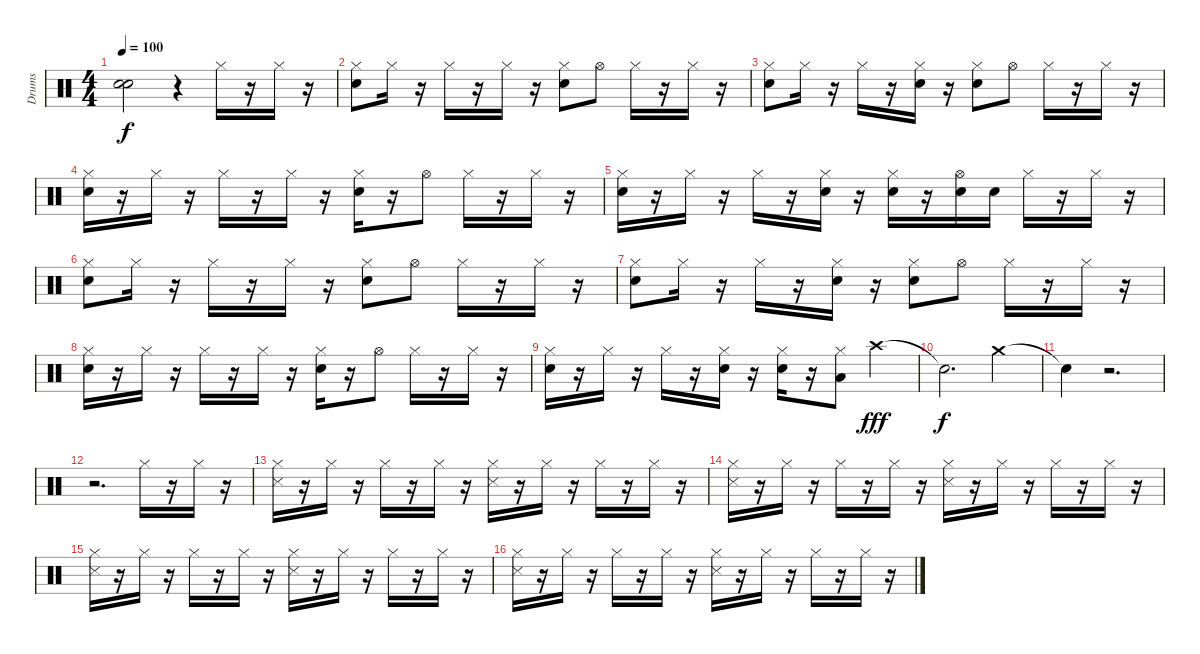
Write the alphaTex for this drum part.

\track ("Drums" "Drums") {instrument percussion}
\staff {score}
\articulation defaults
\ts (4 4)
\tempo 100
\clef neutral
\ks c
("Snare (hit)"{t} "Snare (hit)"{t}).2{dy f} r.4 "Hi-Hat (closed)".16 r.16 "Hi-Hat (closed)".16 r.16 |
("Snare (hit) 2" "Hi-Hat (closed)").8 "Hi-Hat (closed)".16 r.16 "Hi-Hat (closed)".16 r.16 "Hi-Hat (closed)".16 r.16 ("Snare (hit) 2" "Hi-Hat (closed)").8 "Hi-Hat (open)".8 "Hi-Hat (closed)".16 r.16 "Hi-Hat (closed)".16 r.16 |
("Hi-Hat (closed)" "Snare (hit) 2").8 "Hi-Hat (closed)".16 r.16 "Hi-Hat (closed)".16 r.16 ("Hi-Hat (closed)" "Snare (hit) 2").16 r.16 ("Snare (hit) 2" "Hi-Hat (closed)").8 "Hi-Hat (open)".8 "Hi-Hat (closed)".16 r.16 "Hi-Hat (closed)".16 r.16 |
("Hi-Hat (closed)" "Snare (hit) 2").16 r.16 "Hi-Hat (closed)".16 r.16 "Hi-Hat (closed)".16 r.16 "Hi-Hat (closed)".16 r.16 ("Hi-Hat (closed)" "Snare (hit) 2").16 r.16 "Hi-Hat (open)".8 "Hi-Hat (closed)".16 r.16 "Hi-Hat (closed)".16 r.16 |
("Hi-Hat (closed)" "Snare (hit) 2").16 r.16 "Hi-Hat (closed)".16 r.16 "Hi-Hat (closed)".16 r.16 ("Hi-Hat (closed)" "Snare (hit) 2").16 r.16 ("Hi-Hat (closed)" "Snare (hit) 2").16 r.16 ("Hi-Hat (open)" "Snare (hit) 2").16 "Snare (hit) 2".16 "Hi-Hat (closed)".16 r.16 "Hi-Hat (closed)".16 r.16 |
("Hi-Hat (closed)" "Snare (hit) 2").8 "Hi-Hat (closed)".16 r.16 "Hi-Hat (closed)".16 r.16 "Hi-Hat (closed)".16 r.16 ("Snare (hit) 2" "Hi-Hat (closed)").8 "Hi-Hat (open)".8 "Hi-Hat (closed)".16 r.16 "Hi-Hat (closed)".16 r.16 |
("Hi-Hat (closed)" "Snare (hit) 2").8 "Hi-Hat (closed)".16 r.16 "Hi-Hat (closed)".16 r.16 ("Hi-Hat (closed)" "Snare (hit) 2").16 r.16 ("Hi-Hat (closed)" "Snare (hit) 2").8 "Hi-Hat (open)".8 "Hi-Hat (closed)".16 r.16 "Hi-Hat (closed)".16 r.16 |
("Hi-Hat (closed)" "Snare (hit) 2").16 r.16 "Hi-Hat (closed)".16 r.16 "Hi-Hat (closed)".16 r.16 "Hi-Hat (closed)".16 r.16 ("Snare (hit) 2" "Hi-Hat (closed)").16 r.16 "Hi-Hat (open)".8 "Hi-Hat (closed)".16 r.16 "Hi-Hat (closed)".16 r.16 |
("Snare (hit) 2" "Hi-Hat (closed)").16 r.16 "Hi-Hat (closed)".16 r.16 "Hi-Hat (closed)".16 r.16 ("Hi-Hat (closed)" "Snare (hit) 2").16 r.16 ("Hi-Hat (closed)" "Snare (hit) 2").16 r.16 ("Low Tom (hit)" "Hi-Hat (closed)").8 "Crash high (hit)".4{dy fff} |
"Snare (hit)"{t}.2{d dy f} "Crash medium (hit)".4 |
"Snare (hit)"{t}.4 r.2{d} |
r.2{d} "Hi-Hat (closed)".16 r.16 "Hi-Hat (closed)".16 r.16 |
("Snare (side stick) 3" "Hi-Hat (closed)").16 r.16 "Hi-Hat (closed)".16 r.16 "Hi-Hat (closed)".16 r.16 "Hi-Hat (closed)".16 r.16 ("Snare (side stick) 3" "Hi-Hat (closed)").16 r.16 "Hi-Hat (closed)".16 r.16 "Hi-Hat (closed)".16 r.16 "Hi-Hat (closed)".16 r.16 |
("Snare (side stick) 3" "Hi-Hat (closed)").16 r.16 "Hi-Hat (closed)".16 r.16 "Hi-Hat (closed)".16 r.16 "Hi-Hat (closed)".16 r.16 ("Snare (side stick) 3" "Hi-Hat (closed)").16 r.16 "Hi-Hat (closed)".16 r.16 "Hi-Hat (closed)".16 r.16 "Hi-Hat (closed)".16 r.16 |
("Snare (side stick) 3" "Hi-Hat (closed)").16 r.16 "Hi-Hat (closed)".16 r.16 "Hi-Hat (closed)".16 r.16 "Hi-Hat (closed)".16 r.16 ("Snare (side stick) 3" "Hi-Hat (closed)").16 r.16 "Hi-Hat (closed)".16 r.16 "Hi-Hat (closed)".16 r.16 "Hi-Hat (closed)".16 r.16 |
("Snare (side stick) 3" "Hi-Hat (closed)").16 r.16 "Hi-Hat (closed)".16 r.16 "Hi-Hat (closed)".16 r.16 "Hi-Hat (closed)".16 r.16 ("Snare (side stick) 3" "Hi-Hat (closed)").16 r.16 "Hi-Hat (closed)".16 r.16 "Hi-Hat (closed)".16 r.16 "Hi-Hat (closed)".16 r.16
